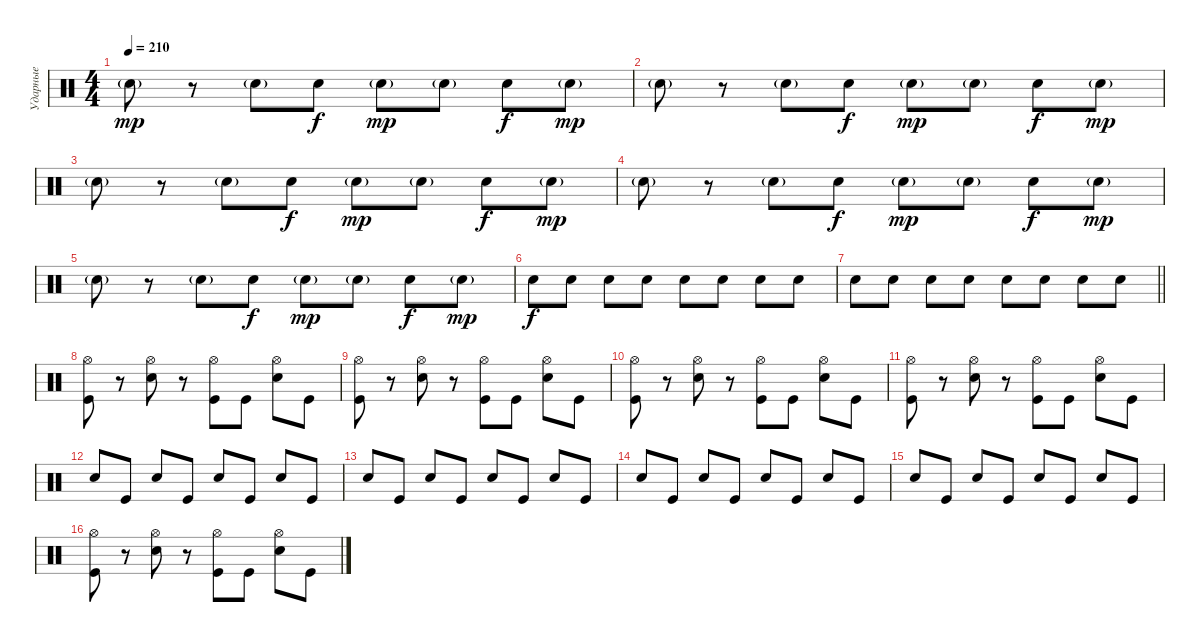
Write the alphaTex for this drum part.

\track ("Ударные" "Ударные") {instrument percussion}
\staff {score}
\articulation defaults
\ts (4 4)
\tempo 210
\clef neutral
\ks c "Electric Snare (hit)"{g}.8{dy mp}
r.8 "Electric Snare (hit)"{g}.8 "Electric Snare (hit)".8{dy f} "Electric Snare (hit)"{g}.8{dy mp} "Electric Snare (hit)"{g}.8 "Electric Snare (hit)".8{dy f} "Electric Snare (hit)"{g}.8{dy mp} |
"Electric Snare (hit)"{g}.8 r.8 "Electric Snare (hit)"{g}.8 "Electric Snare (hit)".8{dy f} "Electric Snare (hit)"{g}.8{dy mp} "Electric Snare (hit)"{g}.8 "Electric Snare (hit)".8{dy f} "Electric Snare (hit)"{g}.8{dy mp} |
"Electric Snare (hit)"{g}.8 r.8 "Electric Snare (hit)"{g}.8 "Electric Snare (hit)".8{dy f} "Electric Snare (hit)"{g}.8{dy mp} "Electric Snare (hit)"{g}.8 "Electric Snare (hit)".8{dy f} "Electric Snare (hit)"{g}.8{dy mp} |
"Electric Snare (hit)"{g}.8 r.8 "Electric Snare (hit)"{g}.8 "Electric Snare (hit)".8{dy f} "Electric Snare (hit)"{g}.8{dy mp} "Electric Snare (hit)"{g}.8 "Electric Snare (hit)".8{dy f} "Electric Snare (hit)"{g}.8{dy mp} |
"Electric Snare (hit)"{g}.8 r.8 "Electric Snare (hit)"{g}.8 "Electric Snare (hit)".8{dy f} "Electric Snare (hit)"{g}.8{dy mp} "Electric Snare (hit)"{g}.8 "Electric Snare (hit)".8{dy f} "Electric Snare (hit)"{g}.8{dy mp volume 2} |
"Electric Snare (hit)".8{dy f volume 16} "Electric Snare (hit)".8 "Electric Snare (hit)".8 "Electric Snare (hit)".8 "Electric Snare (hit)".8 "Electric Snare (hit)".8 "Electric Snare (hit)".8 "Electric Snare (hit)".8 |
\barLineRight lightlight "Electric Snare (hit)".8 "Electric Snare (hit)".8 "Electric Snare (hit)".8 "Electric Snare (hit)".8 "Electric Snare (hit)".8 "Electric Snare (hit)".8 "Electric Snare (hit)".8 "Electric Snare (hit)".8
|
("Hi-Hat (open)" "Kick (hit)").8 r.8 ("Hi-Hat (open)" "Electric Snare (hit)").8 r.8 ("Hi-Hat (open)" "Kick (hit)").8 "Kick (hit)".8 ("Hi-Hat (open)" "Electric Snare (hit)").8 "Kick (hit)".8 |
("Hi-Hat (open)" "Kick (hit)").8 r.8 ("Hi-Hat (open)" "Electric Snare (hit)").8 r.8 ("Hi-Hat (open)" "Kick (hit)").8 "Kick (hit)".8 ("Hi-Hat (open)" "Electric Snare (hit)").8 "Kick (hit)".8 |
("Hi-Hat (open)" "Kick (hit)").8 r.8 ("Hi-Hat (open)" "Electric Snare (hit)").8 r.8 ("Hi-Hat (open)" "Kick (hit)").8 "Kick (hit)".8 ("Hi-Hat (open)" "Electric Snare (hit)").8 "Kick (hit)".8 |
("Hi-Hat (open)" "Kick (hit)").8 r.8 ("Hi-Hat (open)" "Electric Snare (hit)").8 r.8 ("Hi-Hat (open)" "Kick (hit)").8 "Kick (hit)".8 ("Hi-Hat (open)" "Electric Snare (hit)").8 "Kick (hit)".8 |
"Electric Snare (hit)".8 "Kick (hit)".8 "Electric Snare (hit)".8 "Kick (hit)".8 "Electric Snare (hit)".8 "Kick (hit)".8 "Electric Snare (hit)".8 "Kick (hit)".8 |
"Electric Snare (hit)".8 "Kick (hit)".8 "Electric Snare (hit)".8 "Kick (hit)".8 "Electric Snare (hit)".8 "Kick (hit)".8 "Electric Snare (hit)".8 "Kick (hit)".8 |
"Electric Snare (hit)".8 "Kick (hit)".8 "Electric Snare (hit)".8 "Kick (hit)".8 "Electric Snare (hit)".8 "Kick (hit)".8 "Electric Snare (hit)".8 "Kick (hit)".8 |
"Electric Snare (hit)".8 "Kick (hit)".8 "Electric Snare (hit)".8 "Kick (hit)".8 "Electric Snare (hit)".8 "Kick (hit)".8 "Electric Snare (hit)".8 "Kick (hit)".8 |
("Hi-Hat (open)" "Kick (hit)").8 r.8 ("Hi-Hat (open)" "Electric Snare (hit)").8 r.8 ("Hi-Hat (open)" "Kick (hit)").8 "Kick (hit)".8 ("Hi-Hat (open)" "Electric Snare (hit)").8 "Kick (hit)".8
